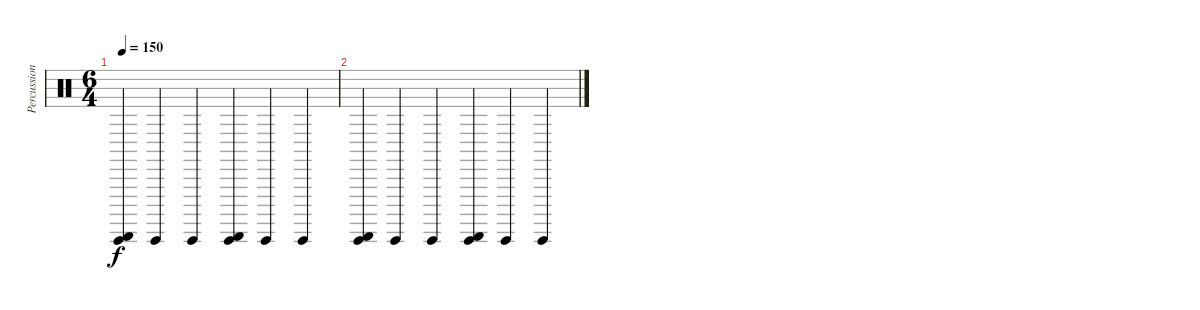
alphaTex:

\track ("Percussion" "Percussion") {instrument percussion}
\staff {score}
\articulation defaults
\ts (6 4)
\tempo 150
\clef neutral
\ks c
("Guiro (scrap-return)" "Guiro (hit)").4{dy f} "Guiro (hit)".4 "Guiro (hit)".4 ("Guiro (scrap-return)" "Guiro (hit)").4 "Guiro (hit)".4 "Guiro (hit)".4 |
("Guiro (scrap-return)" "Guiro (hit)").4 "Guiro (hit)".4 "Guiro (hit)".4 ("Guiro (scrap-return)" "Guiro (hit)").4 "Guiro (hit)".4 "Guiro (hit)".4
